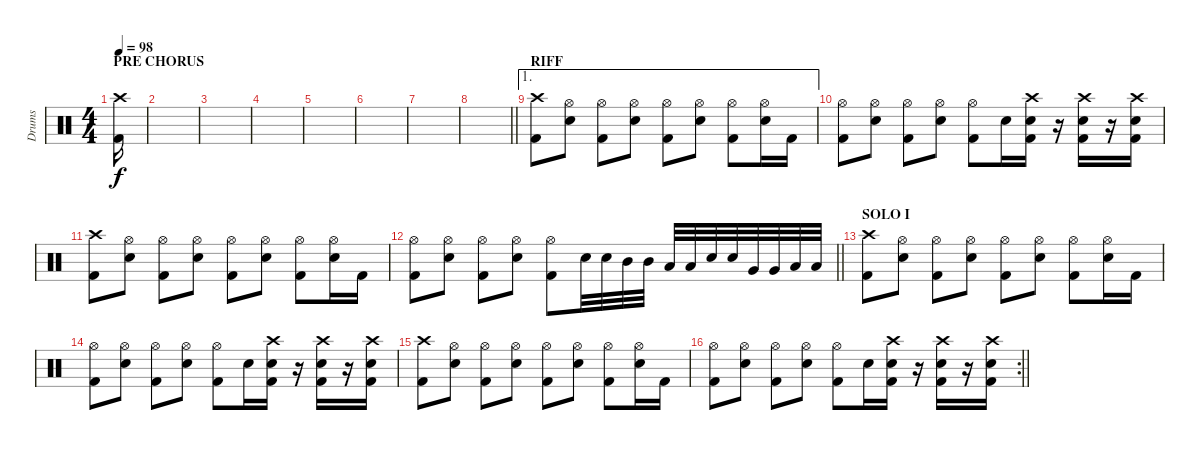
\track ("Drums" "Drums") {instrument percussion}
\staff
\articulation defaults
\ts (4 4)
\section ("" "PRE CHORUS")
\tempo 98
\clef neutral
\ks c
("Crash high (hit)" "Kick (hit) 2").16{dy f} |
|
|
|
|
|
|
\barLineRight lightlight
|
\ae 1
\section ("" "RIFF")
("Crash high (hit)" "Kick (hit) 2").8 ("Hi-Hat (open)" "Snare (hit) 2").8 ("Hi-Hat (open)" "Kick (hit) 2").8 ("Hi-Hat (open)" "Snare (hit) 2").8 ("Hi-Hat (open)" "Kick (hit) 2").8 ("Hi-Hat (open)" "Snare (hit) 2").8 ("Hi-Hat (open)" "Kick (hit) 2").8 ("Hi-Hat (open)" "Snare (hit) 2").16 "Kick (hit) 2".16 |
("Hi-Hat (open)" "Kick (hit) 2").8 ("Hi-Hat (open)" "Snare (hit) 2").8 ("Hi-Hat (open)" "Kick (hit) 2").8 ("Hi-Hat (open)" "Snare (hit) 2").8 ("Hi-Hat (open)" "Kick (hit) 2").8 "Snare (hit) 2".16 ("Crash high (hit)" "Snare (hit) 2" "Kick (hit) 2").16 r.16 ("Crash high (hit)" "Snare (hit) 2" "Kick (hit) 2").16 r.16 ("Crash high (hit)" "Snare (hit) 2" "Kick (hit) 2").16 |
("Crash high (hit)" "Kick (hit) 2").8 ("Hi-Hat (open)" "Snare (hit) 2").8 ("Hi-Hat (open)" "Kick (hit) 2").8 ("Hi-Hat (open)" "Snare (hit) 2").8 ("Hi-Hat (open)" "Kick (hit) 2").8 ("Hi-Hat (open)" "Snare (hit) 2").8 ("Hi-Hat (open)" "Kick (hit) 2").8 ("Hi-Hat (open)" "Snare (hit) 2").16 "Kick (hit) 2".16 |
\barLineRight lightlight
("Hi-Hat (open)" "Kick (hit) 2").8 ("Hi-Hat (open)" "Snare (hit) 2").8 ("Hi-Hat (open)" "Kick (hit) 2").8 ("Hi-Hat (open)" "Snare (hit) 2").8 ("Hi-Hat (open)" "Kick (hit) 2").8 "Snare (hit) 2".32 "Snare (hit) 2".32 "Mid Tom (hit)".32 "Mid Tom (hit)".32 "Low Tom (hit)".32 "Low Tom (hit)".32 "Snare (hit) 2".32 "Snare (hit) 2".32 "Very Low Tom (hit)".32 "Very Low Tom (hit)".32 "Low Floor Tom (hit)".32 "Low Floor Tom (hit)".32 |
\section ("" "SOLO I")
("Crash high (hit)" "Kick (hit) 2").8 ("Hi-Hat (open)" "Snare (hit) 2").8 ("Hi-Hat (open)" "Kick (hit) 2").8 ("Hi-Hat (open)" "Snare (hit) 2").8 ("Hi-Hat (open)" "Kick (hit) 2").8 ("Hi-Hat (open)" "Snare (hit) 2").8 ("Hi-Hat (open)" "Kick (hit) 2").8 ("Hi-Hat (open)" "Snare (hit) 2").16 "Kick (hit) 2".16 |
("Hi-Hat (open)" "Kick (hit) 2").8 ("Hi-Hat (open)" "Snare (hit) 2").8 ("Hi-Hat (open)" "Kick (hit) 2").8 ("Hi-Hat (open)" "Snare (hit) 2").8 ("Hi-Hat (open)" "Kick (hit) 2").8 "Snare (hit) 2".16 ("Crash high (hit)" "Snare (hit) 2" "Kick (hit) 2").16 r.16 ("Crash high (hit)" "Snare (hit) 2" "Kick (hit) 2").16 r.16 ("Crash high (hit)" "Snare (hit) 2" "Kick (hit) 2").16 |
("Crash high (hit)" "Kick (hit) 2").8 ("Hi-Hat (open)" "Snare (hit) 2").8 ("Hi-Hat (open)" "Kick (hit) 2").8 ("Hi-Hat (open)" "Snare (hit) 2").8 ("Hi-Hat (open)" "Kick (hit) 2").8 ("Hi-Hat (open)" "Snare (hit) 2").8 ("Hi-Hat (open)" "Kick (hit) 2").8 ("Hi-Hat (open)" "Snare (hit) 2").16 "Kick (hit) 2".16 |
\rc 2
\barLineRight lightlight
("Hi-Hat (open)" "Kick (hit) 2").8 ("Hi-Hat (open)" "Snare (hit) 2").8 ("Hi-Hat (open)" "Kick (hit) 2").8 ("Hi-Hat (open)" "Snare (hit) 2").8 ("Hi-Hat (open)" "Kick (hit) 2").8 "Snare (hit) 2".16 ("Crash high (hit)" "Snare (hit) 2" "Kick (hit) 2").16 r.16 ("Crash high (hit)" "Snare (hit) 2" "Kick (hit) 2").16 r.16 ("Crash high (hit)" "Snare (hit) 2" "Kick (hit) 2").16
